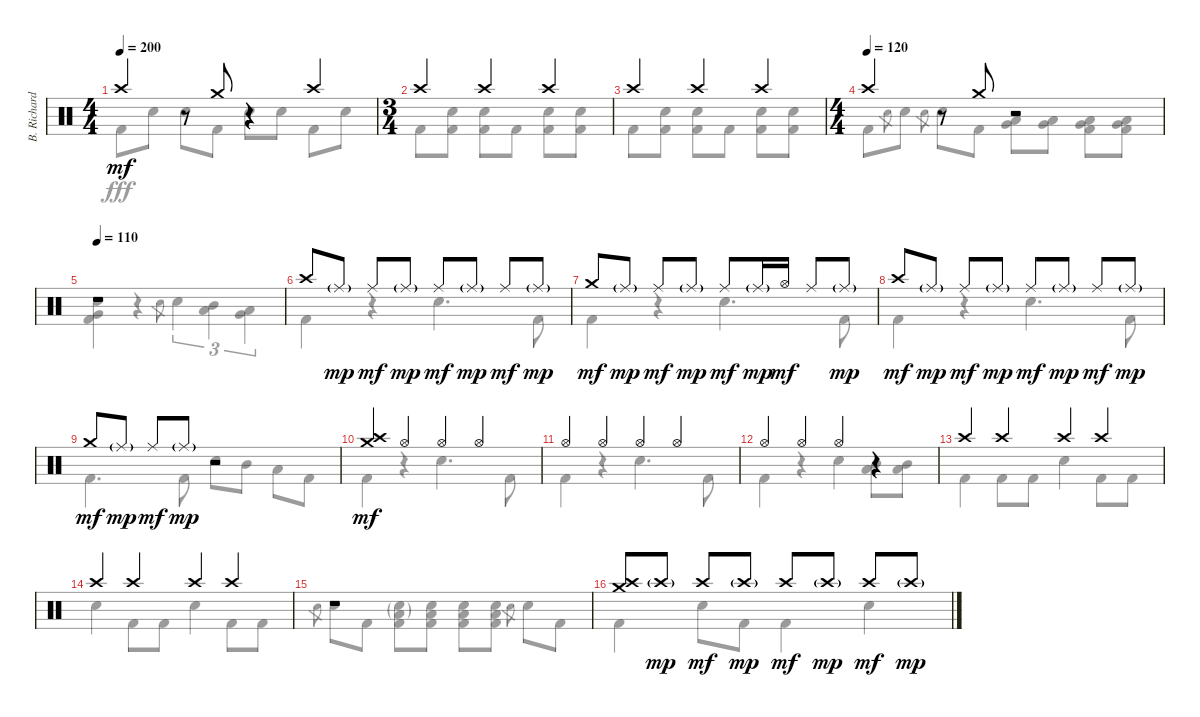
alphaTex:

\track ("B. Richardson Drums" "B. Richard") {instrument percussion}
\staff {score}
\articulation defaults
\voice
\ts (4 4)
\tempo 200
\clef neutral
\ks c "Crash high (hit)".4{dy mf}
r.8 "Crash medium (hit)".8 r.4 "Crash high (hit)".4 |
\ts (3 4)
"Crash high (hit)".4 "Crash high (hit)".4 "Crash high (hit)".4 |
"Crash high (hit)".4 "Crash high (hit)".4 "Crash high (hit)".4 |
\ts (4 4)
\tempo (120)
"Crash high (hit)".4 r.8 "Crash medium (hit)".8 r.2 |
\tempo 110
r.1 |
"Crash high (hit)".8 "Ride (middle)"{g}.8{dy mp} "Ride (middle)".8{dy mf} "Ride (middle)"{g}.8{dy mp} "Ride (middle)".8{dy mf} "Ride (middle)"{g}.8{dy mp} "Ride (middle)".8{dy mf} "Ride (middle)"{g}.8{dy mp} |
"Crash medium (hit)".8{dy mf} "Ride (middle)"{g}.8{dy mp} "Ride (middle)".8{dy mf} "Ride (middle)"{g}.8{dy mp} "Ride (middle)".8{dy mf} "Ride (middle)"{g}.16{dy mp} "Hi-Hat (open)".16{dy mf} "Ride (middle)".8 "Ride (middle)"{g}.8{dy mp} |
"Crash high (hit)".8{dy mf} "Ride (middle)"{g}.8{dy mp} "Ride (middle)".8{dy mf} "Ride (middle)"{g}.8{dy mp} "Ride (middle)".8{dy mf} "Ride (middle)"{g}.8{dy mp} "Ride (middle)".8{dy mf} "Ride (middle)"{g}.8{dy mp} |
"Crash medium (hit)".8{dy mf} "Ride (middle)"{g}.8{dy mp} "Ride (middle)".8{dy mf} "Ride (middle)"{g}.8{dy mp} r.2 |
("Crash high (hit)" "Crash medium (hit)").4{dy mf} "Hi-Hat (open)".4 "Hi-Hat (open)".4 "Hi-Hat (open)".4 |
"Hi-Hat (open)".4 "Hi-Hat (open)".4 "Hi-Hat (open)".4 "Hi-Hat (open)".4 |
"Hi-Hat (open)".4 "Hi-Hat (open)".4 "Hi-Hat (open)".4 r.4 |
"Crash high (hit)".4 "Crash high (hit)".4 "Crash high (hit)".4 "Crash high (hit)".4 |
"Crash high (hit)".4 "Crash high (hit)".4 "Crash high (hit)".4 "Crash high (hit)".4 |
r.1 |
("Crash high (hit)" "Crash medium (hit)").8 "Crash high (hit)"{g}.8{dy mp} "Crash high (hit)".8{dy mf} "Crash high (hit)"{g}.8{dy mp} "Crash high (hit)".8{dy mf} "Crash high (hit)"{g}.8{dy mp} "Crash high (hit)".8{dy mf} "Crash high (hit)"{g}.8{dy mp}
\voice
\clef neutral
\ottava regular
\simile none
\ks c "Kick (hit) 2".8{dy fff} "Electric Snare (hit)".8 "Electric Snare (hit)".8 "Kick (hit) 2".8 "Electric Snare (hit)".8 "Electric Snare (hit)".8 "Kick (hit) 2".8 "Electric Snare (hit)".8
|
"Kick (hit) 2".8 ("Electric Snare (hit)" "Kick (hit) 2").8 ("Electric Snare (hit)" "Kick (hit) 2").8 "Kick (hit) 2".8 ("Electric Snare (hit)" "Kick (hit) 2").8 ("Electric Snare (hit)" "Kick (hit) 2").8 |
"Kick (hit) 2".8 ("Electric Snare (hit)" "Kick (hit) 2").8 ("Electric Snare (hit)" "Kick (hit) 2").8 "Kick (hit) 2".8 ("Electric Snare (hit)" "Kick (hit) 2").8 ("Electric Snare (hit)" "Kick (hit) 2").8 |
"Kick (hit) 2".8 "Electric Snare (hit)".8{gr} "Electric Snare (hit)".8 "Electric Snare (hit)".8{gr} "Electric Snare (hit)".8 "Kick (hit) 2".8 ("Low Tom (hit)" "Very Low Tom (hit)").8 ("Low Tom (hit)" "Very Low Tom (hit)").8 ("Low Tom (hit)" "Very Low Tom (hit)" "Kick (hit) 2").8 ("Low Tom (hit)" "Very Low Tom (hit)" "Kick (hit) 2").8 |
("Electric Snare (hit)" "Very Low Tom (hit)" "Kick (hit) 2").4 r.4 "Electric Snare (hit)".8{gr} "Electric Snare (hit)".4{tu (3 2)} ("Mid Tom (hit)" "Low Tom (hit)").4{tu (3 2)} ("Low Tom (hit)" "Very Low Tom (hit)").4{tu (3 2)} |
"Kick (hit) 2".4 r.4 "Electric Snare (hit)".4{d} "Kick (hit) 2".8 |
"Kick (hit) 2".4 r.4 "Electric Snare (hit)".4{d} "Kick (hit) 2".8 |
"Kick (hit) 2".4 r.4 "Electric Snare (hit)".4{d} "Kick (hit) 2".8 |
"Kick (hit) 2".4{d} "Kick (hit) 2".8 "Electric Snare (hit)".8 "Mid Tom (hit)".8 "Low Tom (hit)".8 "Kick (hit) 2".8 |
"Kick (hit) 2".4 r.4 "Electric Snare (hit)".4{d} "Kick (hit) 2".8 |
"Kick (hit) 2".4 r.4 "Electric Snare (hit)".4{d} "Kick (hit) 2".8 |
"Kick (hit) 2".4 r.4 "Electric Snare (hit)".4 ("Mid Tom (hit)" "Low Tom (hit)").8 ("Mid Tom (hit)" "Low Tom (hit)").8 |
"Kick (hit) 2".4 "Kick (hit) 2".8 "Kick (hit) 2".8 "Electric Snare (hit)".4 "Kick (hit) 2".8 "Kick (hit) 2".8 |
"Electric Snare (hit)".4 "Kick (hit) 2".8 "Kick (hit) 2".8 "Electric Snare (hit)".4 "Kick (hit) 2".8 "Kick (hit) 2".8 |
"Electric Snare (hit)".8{gr} "Electric Snare (hit)".8 "Kick (hit) 2".8 ("Electric Snare (hit)"{g} "Low Tom (hit)"{g} "Kick (hit) 2").8 ("Electric Snare (hit)" "Low Tom (hit)" "Kick (hit) 2").8 ("Electric Snare (hit)" "Low Tom (hit)" "Kick (hit) 2").8 ("Electric Snare (hit)" "Low Tom (hit)" "Kick (hit) 2").8 "Electric Snare (hit)".8{gr} "Electric Snare (hit)".8 "Kick (hit) 2".8 |
"Kick (hit) 2".4 "Electric Snare (hit)".8 "Kick (hit) 2".8 "Kick (hit) 2".4 "Electric Snare (hit)".4
